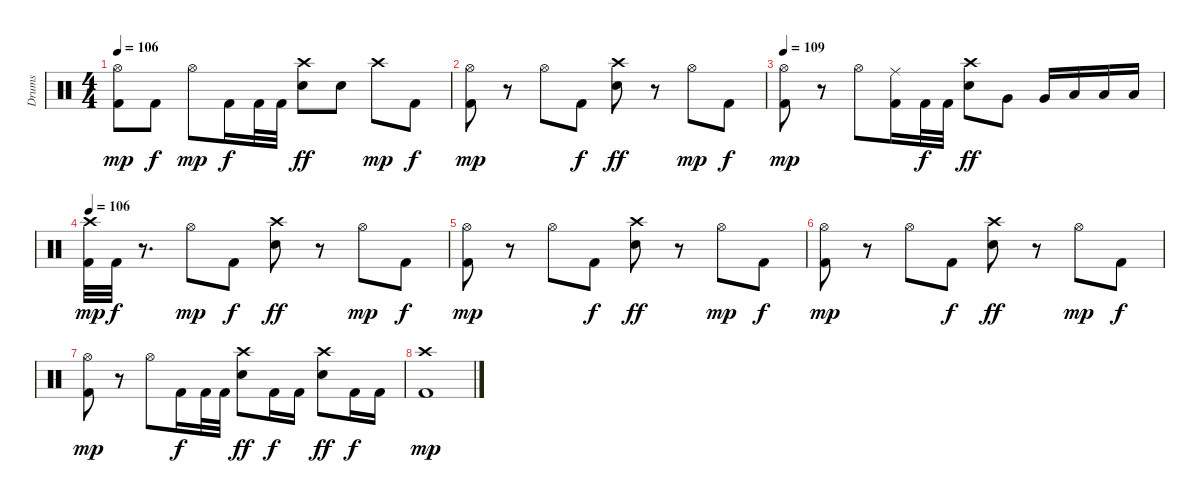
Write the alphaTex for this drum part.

\track ("Drums" "Drums") {instrument percussion}
\staff {score}
\articulation defaults
\ts (4 4)
\tempo 106
\clef neutral
\ks c
("Hi-Hat (open)" "Kick (hit) 2").8{dy mp} "Kick (hit) 2".8{dy f} "Hi-Hat (open)".8{dy mp} "Kick (hit) 2".16{dy f} "Kick (hit) 2".32 "Kick (hit) 2".32 ("Crash high (hit)" "Electric Snare (hit)").8{dy ff} "Electric Snare (hit)".8 "Crash high (hit)".8{dy mp} "Kick (hit) 2".8{dy f} |
("Hi-Hat (open)" "Kick (hit) 2").8{dy mp} r.8 "Hi-Hat (open)".8 "Kick (hit) 2".8{dy f} ("Crash high (hit)" "Electric Snare (hit)").8{dy ff} r.8 "Hi-Hat (open)".8{dy mp} "Kick (hit) 2".8{dy f} |
\tempo 109
("Hi-Hat (open)" "Kick (hit) 2").8{dy mp} r.8 "Hi-Hat (open)".8 ("Ride (middle)" "Kick (hit) 2").16 "Kick (hit) 2".32{dy f} "Kick (hit) 2".32 ("Crash high (hit)" "Electric Snare (hit)").8{dy ff} "Very Low Tom (hit)".8 "Very Low Tom (hit)".16 "Low Floor Tom (hit)".16 "Low Floor Tom (hit)".16 "Low Floor Tom (hit)".16 |
\tempo 106
("Crash high (hit)" "Kick (hit) 2").32{dy mp} "Kick (hit) 2".32{dy f} r.8{d} "Hi-Hat (open)".8{dy mp} "Kick (hit) 2".8{dy f} ("Crash high (hit)" "Electric Snare (hit)").8{dy ff} r.8 "Hi-Hat (open)".8{dy mp} "Kick (hit) 2".8{dy f} |
("Hi-Hat (open)" "Kick (hit) 2").8{dy mp} r.8 "Hi-Hat (open)".8 "Kick (hit) 2".8{dy f} ("Crash high (hit)" "Electric Snare (hit)").8{dy ff} r.8 "Hi-Hat (open)".8{dy mp} "Kick (hit) 2".8{dy f} |
("Hi-Hat (open)" "Kick (hit) 2").8{dy mp} r.8 "Hi-Hat (open)".8 "Kick (hit) 2".8{dy f} ("Crash high (hit)" "Electric Snare (hit)").8{dy ff} r.8 "Hi-Hat (open)".8{dy mp} "Kick (hit) 2".8{dy f} |
("Hi-Hat (open)" "Kick (hit) 2").8{dy mp} r.8 "Hi-Hat (open)".8 "Kick (hit) 2".16{dy f} "Kick (hit) 2".32 "Kick (hit) 2".32 ("Crash high (hit)" "Electric Snare (hit)").8{dy ff} "Kick (hit) 2".16{dy f} "Kick (hit) 2".16 ("Crash high (hit)" "Electric Snare (hit)").8{dy ff} "Kick (hit) 2".16{dy f} "Kick (hit) 2".16 |
("Crash high (hit)" "Kick (hit) 2").1{dy mp}
